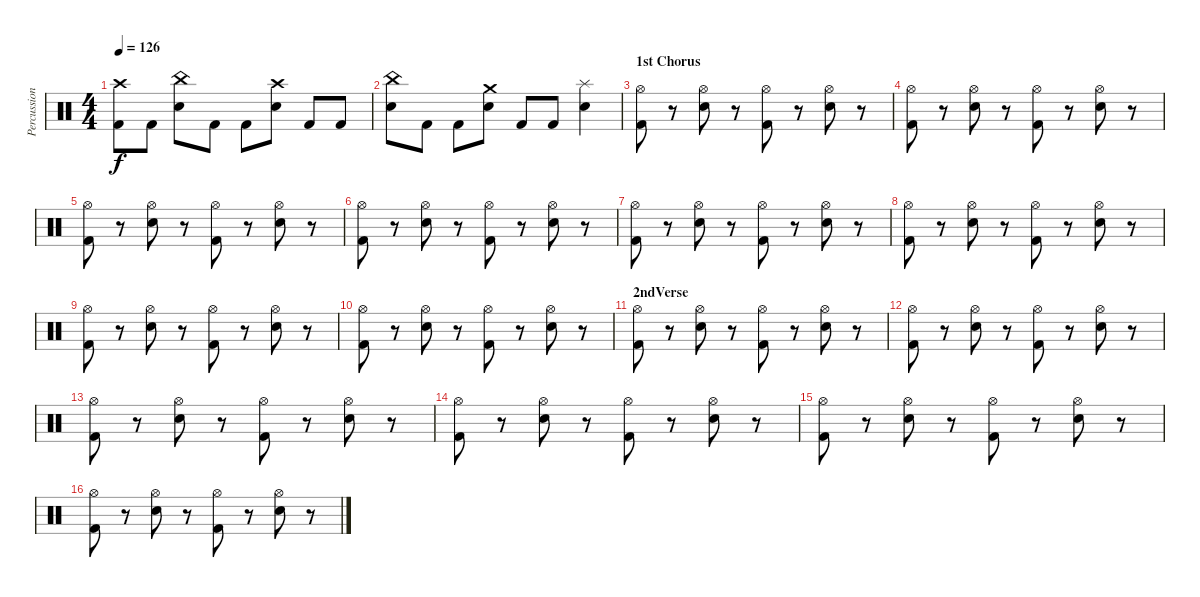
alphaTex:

\track ("Percussion" "Percussion") {instrument percussion}
\staff {score}
\articulation defaults
\ts (4 4)
\tempo 126
\clef neutral
\ks c
("Crash high (hit)" "Kick (hit) 2").8{dy f} "Kick (hit) 2".8 ("China (hit)" "Snare (hit) 2").8 "Kick (hit) 2".8 "Kick (hit) 2".8 ("Crash high (hit)" "Snare (hit) 2").8 "Kick (hit) 2".8 "Kick (hit) 2".8 |
("China (hit)" "Snare (hit) 2").8 "Kick (hit) 2".8 "Kick (hit) 2".8 ("Crash medium (hit)" "Snare (hit) 2").8 "Kick (hit) 2".8 "Kick (hit) 2".8 ("Splash (hit)" "Snare (hit) 2").4 |
\section ("" "1st Chorus")
("Hi-Hat (open)" "Kick (hit) 2").8 r.8 ("Hi-Hat (open)" "Snare (hit) 2").8 r.8 ("Hi-Hat (open)" "Kick (hit) 2").8 r.8 ("Hi-Hat (open)" "Snare (hit) 2").8 r.8 |
("Hi-Hat (open)" "Kick (hit) 2").8 r.8 ("Hi-Hat (open)" "Snare (hit) 2").8 r.8 ("Hi-Hat (open)" "Kick (hit) 2").8 r.8 ("Hi-Hat (open)" "Snare (hit) 2").8 r.8 |
("Hi-Hat (open)" "Kick (hit) 2").8 r.8 ("Hi-Hat (open)" "Snare (hit) 2").8 r.8 ("Hi-Hat (open)" "Kick (hit) 2").8 r.8 ("Hi-Hat (open)" "Snare (hit) 2").8 r.8 |
("Hi-Hat (open)" "Kick (hit) 2").8 r.8 ("Hi-Hat (open)" "Snare (hit) 2").8 r.8 ("Hi-Hat (open)" "Kick (hit) 2").8 r.8 ("Hi-Hat (open)" "Snare (hit) 2").8 r.8 |
("Hi-Hat (open)" "Kick (hit) 2").8 r.8 ("Hi-Hat (open)" "Snare (hit) 2").8 r.8 ("Hi-Hat (open)" "Kick (hit) 2").8 r.8 ("Hi-Hat (open)" "Snare (hit) 2").8 r.8 |
("Hi-Hat (open)" "Kick (hit) 2").8 r.8 ("Hi-Hat (open)" "Snare (hit) 2").8 r.8 ("Hi-Hat (open)" "Kick (hit) 2").8 r.8 ("Hi-Hat (open)" "Snare (hit) 2").8 r.8 |
("Hi-Hat (open)" "Kick (hit) 2").8 r.8 ("Hi-Hat (open)" "Snare (hit) 2").8 r.8 ("Hi-Hat (open)" "Kick (hit) 2").8 r.8 ("Hi-Hat (open)" "Snare (hit) 2").8 r.8 |
("Hi-Hat (open)" "Kick (hit) 2").8 r.8 ("Hi-Hat (open)" "Snare (hit) 2").8 r.8 ("Hi-Hat (open)" "Kick (hit) 2").8 r.8 ("Hi-Hat (open)" "Snare (hit) 2").8 r.8 |
\section ("" "2ndVerse")
("Hi-Hat (open)" "Kick (hit) 2").8 r.8 ("Hi-Hat (open)" "Snare (hit) 2").8 r.8 ("Hi-Hat (open)" "Kick (hit) 2").8 r.8 ("Hi-Hat (open)" "Snare (hit) 2").8 r.8 |
("Hi-Hat (open)" "Kick (hit) 2").8 r.8 ("Hi-Hat (open)" "Snare (hit) 2").8 r.8 ("Hi-Hat (open)" "Kick (hit) 2").8 r.8 ("Hi-Hat (open)" "Snare (hit) 2").8 r.8 |
("Hi-Hat (open)" "Kick (hit) 2").8 r.8 ("Hi-Hat (open)" "Snare (hit) 2").8 r.8 ("Hi-Hat (open)" "Kick (hit) 2").8 r.8 ("Hi-Hat (open)" "Snare (hit) 2").8 r.8 |
("Hi-Hat (open)" "Kick (hit) 2").8 r.8 ("Hi-Hat (open)" "Snare (hit) 2").8 r.8 ("Hi-Hat (open)" "Kick (hit) 2").8 r.8 ("Hi-Hat (open)" "Snare (hit) 2").8 r.8 |
("Hi-Hat (open)" "Kick (hit) 2").8 r.8 ("Hi-Hat (open)" "Snare (hit) 2").8 r.8 ("Hi-Hat (open)" "Kick (hit) 2").8 r.8 ("Hi-Hat (open)" "Snare (hit) 2").8 r.8 |
("Hi-Hat (open)" "Kick (hit) 2").8 r.8 ("Hi-Hat (open)" "Snare (hit) 2").8 r.8 ("Hi-Hat (open)" "Kick (hit) 2").8 r.8 ("Hi-Hat (open)" "Snare (hit) 2").8 r.8
